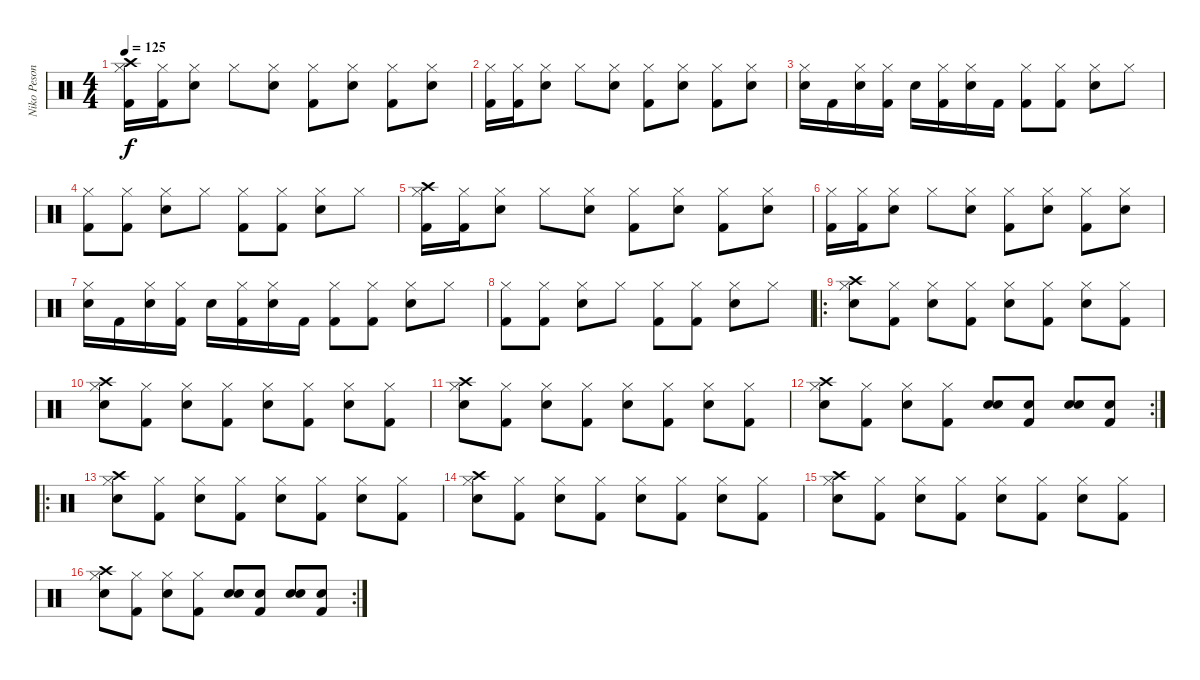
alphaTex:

\track ("Niko Pesonen" "Niko Peson") {instrument percussion}
\staff {score}
\articulation defaults
\ts (4 4)
\tempo 125
\clef neutral
\ks c
("Crash high (hit)" "Hi-Hat (closed)" "Kick (hit) 2").16{dy f} ("Hi-Hat (closed)" "Kick (hit) 2").16 ("Hi-Hat (closed)" "Snare (hit) 2").8 "Hi-Hat (closed)".8 ("Hi-Hat (closed)" "Snare (hit) 2").8 ("Hi-Hat (closed)" "Kick (hit) 2").8 ("Hi-Hat (closed)" "Snare (hit) 2").8 ("Hi-Hat (closed)" "Kick (hit) 2").8 ("Hi-Hat (closed)" "Snare (hit) 2").8 |
("Hi-Hat (closed)" "Kick (hit) 2").16 ("Hi-Hat (closed)" "Kick (hit) 2").16 ("Hi-Hat (closed)" "Snare (hit) 2").8 "Hi-Hat (closed)".8 ("Hi-Hat (closed)" "Snare (hit) 2").8 ("Hi-Hat (closed)" "Kick (hit) 2").8 ("Hi-Hat (closed)" "Snare (hit) 2").8 ("Hi-Hat (closed)" "Kick (hit) 2").8 ("Hi-Hat (closed)" "Snare (hit) 2").8 |
("Hi-Hat (closed)" "Snare (hit) 2").16 "Kick (hit) 2".16 ("Hi-Hat (closed)" "Snare (hit) 2").16 ("Hi-Hat (closed)" "Kick (hit) 2").16 "Snare (hit) 2".16 ("Hi-Hat (closed)" "Kick (hit) 2").16 ("Hi-Hat (closed)" "Snare (hit) 2").16 "Kick (hit) 2".16 ("Hi-Hat (closed)" "Kick (hit) 2").8 ("Hi-Hat (closed)" "Kick (hit) 2").8 ("Hi-Hat (closed)" "Snare (hit) 2").8 "Hi-Hat (closed)".8 |
("Hi-Hat (closed)" "Kick (hit) 2").8 ("Hi-Hat (closed)" "Kick (hit) 2").8 ("Hi-Hat (closed)" "Snare (hit) 2").8 "Hi-Hat (closed)".8 ("Hi-Hat (closed)" "Kick (hit) 2").8 ("Hi-Hat (closed)" "Kick (hit) 2").8 ("Hi-Hat (closed)" "Snare (hit) 2").8 "Hi-Hat (closed)".8 |
("Crash high (hit)" "Hi-Hat (closed)" "Kick (hit) 2").16 ("Hi-Hat (closed)" "Kick (hit) 2").16 ("Hi-Hat (closed)" "Snare (hit) 2").8 "Hi-Hat (closed)".8 ("Hi-Hat (closed)" "Snare (hit) 2").8 ("Hi-Hat (closed)" "Kick (hit) 2").8 ("Hi-Hat (closed)" "Snare (hit) 2").8 ("Hi-Hat (closed)" "Kick (hit) 2").8 ("Hi-Hat (closed)" "Snare (hit) 2").8 |
("Hi-Hat (closed)" "Kick (hit) 2").16 ("Hi-Hat (closed)" "Kick (hit) 2").16 ("Hi-Hat (closed)" "Snare (hit) 2").8 "Hi-Hat (closed)".8 ("Hi-Hat (closed)" "Snare (hit) 2").8 ("Hi-Hat (closed)" "Kick (hit) 2").8 ("Hi-Hat (closed)" "Snare (hit) 2").8 ("Hi-Hat (closed)" "Kick (hit) 2").8 ("Hi-Hat (closed)" "Snare (hit) 2").8 |
("Hi-Hat (closed)" "Snare (hit) 2").16 "Kick (hit) 2".16 ("Hi-Hat (closed)" "Snare (hit) 2").16 ("Hi-Hat (closed)" "Kick (hit) 2").16 "Snare (hit) 2".16 ("Hi-Hat (closed)" "Kick (hit) 2").16 ("Hi-Hat (closed)" "Snare (hit) 2").16 "Kick (hit) 2".16 ("Hi-Hat (closed)" "Kick (hit) 2").8 ("Hi-Hat (closed)" "Kick (hit) 2").8 ("Hi-Hat (closed)" "Snare (hit) 2").8 "Hi-Hat (closed)".8 |
("Hi-Hat (closed)" "Kick (hit) 2").8 ("Hi-Hat (closed)" "Kick (hit) 2").8 ("Hi-Hat (closed)" "Snare (hit) 2").8 "Hi-Hat (closed)".8 ("Hi-Hat (closed)" "Kick (hit) 2").8 ("Hi-Hat (closed)" "Kick (hit) 2").8 ("Hi-Hat (closed)" "Snare (hit) 2").8 "Hi-Hat (closed)".8 |
\ro
("Crash high (hit)" "Hi-Hat (closed)" "Snare (hit) 2").8 ("Hi-Hat (closed)" "Kick (hit) 2").8 ("Hi-Hat (closed)" "Snare (hit) 2").8 ("Hi-Hat (closed)" "Kick (hit) 2").8 ("Hi-Hat (closed)" "Snare (hit) 2").8 ("Hi-Hat (closed)" "Kick (hit) 2").8 ("Hi-Hat (closed)" "Snare (hit) 2").8 ("Hi-Hat (closed)" "Kick (hit) 2").8 |
("Crash high (hit)" "Hi-Hat (closed)" "Snare (hit) 2").8 ("Hi-Hat (closed)" "Kick (hit) 2").8 ("Hi-Hat (closed)" "Snare (hit) 2").8 ("Hi-Hat (closed)" "Kick (hit) 2").8 ("Hi-Hat (closed)" "Snare (hit) 2").8 ("Hi-Hat (closed)" "Kick (hit) 2").8 ("Hi-Hat (closed)" "Snare (hit) 2").8 ("Hi-Hat (closed)" "Kick (hit) 2").8 |
("Crash high (hit)" "Hi-Hat (closed)" "Snare (hit) 2").8 ("Hi-Hat (closed)" "Kick (hit) 2").8 ("Hi-Hat (closed)" "Snare (hit) 2").8 ("Hi-Hat (closed)" "Kick (hit) 2").8 ("Hi-Hat (closed)" "Snare (hit) 2").8 ("Hi-Hat (closed)" "Kick (hit) 2").8 ("Hi-Hat (closed)" "Snare (hit) 2").8 ("Hi-Hat (closed)" "Kick (hit) 2").8 |
\rc 2
("Crash high (hit)" "Hi-Hat (closed)" "Snare (hit) 2").8 ("Hi-Hat (closed)" "Kick (hit) 2").8 ("Hi-Hat (closed)" "Snare (hit) 2").8 ("Hi-Hat (closed)" "Kick (hit) 2").8 ("Snare (hit) 2" "Snare (hit) 2").8 ("Snare (hit) 2" "Kick (hit) 2").8 ("Snare (hit) 2" "Snare (hit) 2").8 ("Snare (hit) 2" "Kick (hit) 2").8 |
\ro
("Crash high (hit)" "Hi-Hat (closed)" "Snare (hit) 2").8 ("Hi-Hat (closed)" "Kick (hit) 2").8 ("Hi-Hat (closed)" "Snare (hit) 2").8 ("Hi-Hat (closed)" "Kick (hit) 2").8 ("Hi-Hat (closed)" "Snare (hit) 2").8 ("Hi-Hat (closed)" "Kick (hit) 2").8 ("Hi-Hat (closed)" "Snare (hit) 2").8 ("Hi-Hat (closed)" "Kick (hit) 2").8 |
("Crash high (hit)" "Hi-Hat (closed)" "Snare (hit) 2").8 ("Hi-Hat (closed)" "Kick (hit) 2").8 ("Hi-Hat (closed)" "Snare (hit) 2").8 ("Hi-Hat (closed)" "Kick (hit) 2").8 ("Hi-Hat (closed)" "Snare (hit) 2").8 ("Hi-Hat (closed)" "Kick (hit) 2").8 ("Hi-Hat (closed)" "Snare (hit) 2").8 ("Hi-Hat (closed)" "Kick (hit) 2").8 |
("Crash high (hit)" "Hi-Hat (closed)" "Snare (hit) 2").8 ("Hi-Hat (closed)" "Kick (hit) 2").8 ("Hi-Hat (closed)" "Snare (hit) 2").8 ("Hi-Hat (closed)" "Kick (hit) 2").8 ("Hi-Hat (closed)" "Snare (hit) 2").8 ("Hi-Hat (closed)" "Kick (hit) 2").8 ("Hi-Hat (closed)" "Snare (hit) 2").8 ("Hi-Hat (closed)" "Kick (hit) 2").8 |
\rc 2
("Crash high (hit)" "Hi-Hat (closed)" "Snare (hit) 2").8 ("Hi-Hat (closed)" "Kick (hit) 2").8 ("Hi-Hat (closed)" "Snare (hit) 2").8 ("Hi-Hat (closed)" "Kick (hit) 2").8 ("Snare (hit) 2" "Snare (hit) 2").8 ("Snare (hit) 2" "Kick (hit) 2").8 ("Snare (hit) 2" "Snare (hit) 2").8 ("Snare (hit) 2" "Kick (hit) 2").8
